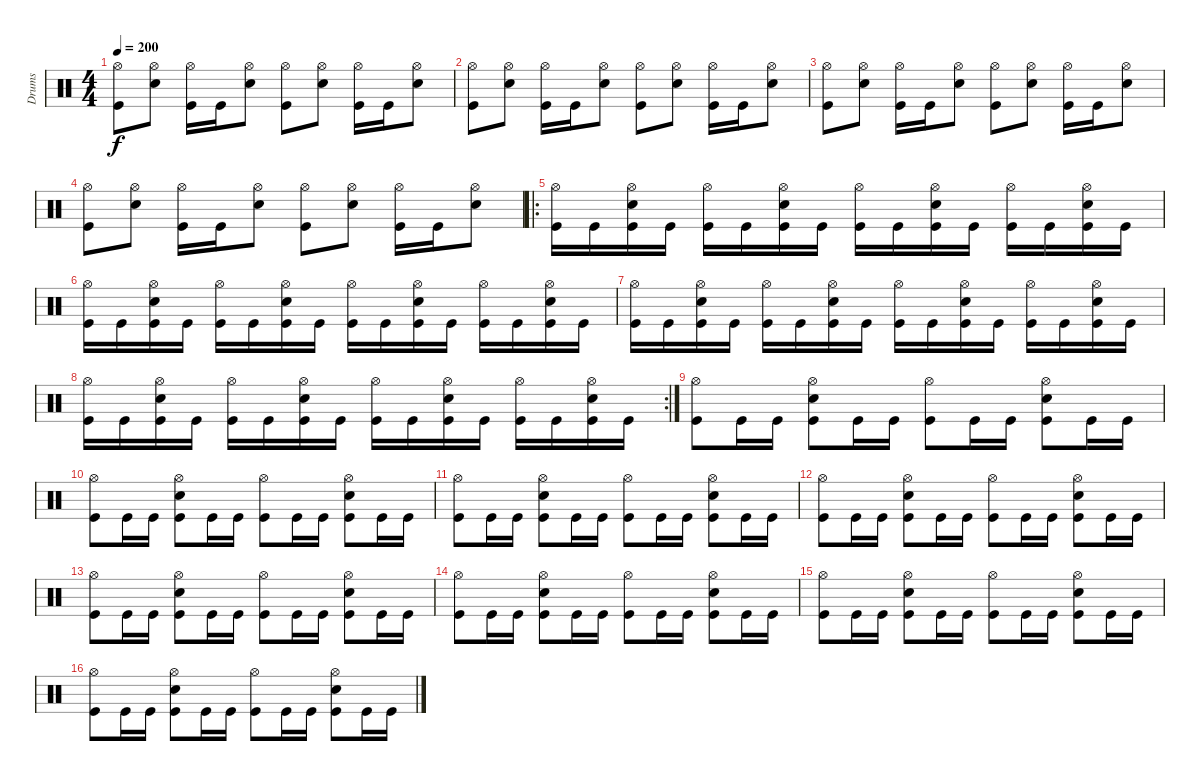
\track ("Drums" "Drums") {instrument percussion}
\staff {score}
\articulation defaults
\ts (4 4)
\tempo 200
\clef neutral
\ks c
("Hi-Hat (open)" "Kick (hit)").8{dy f} ("Hi-Hat (open)" "Snare (hit) 2").8 ("Hi-Hat (open)" "Kick (hit)").16 "Kick (hit)".16 ("Hi-Hat (open)" "Snare (hit) 2").8 ("Hi-Hat (open)" "Kick (hit)").8 ("Hi-Hat (open)" "Snare (hit) 2").8 ("Hi-Hat (open)" "Kick (hit)").16 "Kick (hit)".16 ("Hi-Hat (open)" "Snare (hit) 2").8 |
("Hi-Hat (open)" "Kick (hit)").8 ("Hi-Hat (open)" "Snare (hit) 2").8 ("Hi-Hat (open)" "Kick (hit)").16 "Kick (hit)".16 ("Hi-Hat (open)" "Snare (hit) 2").8 ("Hi-Hat (open)" "Kick (hit)").8 ("Hi-Hat (open)" "Snare (hit) 2").8 ("Hi-Hat (open)" "Kick (hit)").16 "Kick (hit)".16 ("Hi-Hat (open)" "Snare (hit) 2").8 |
("Hi-Hat (open)" "Kick (hit)").8 ("Hi-Hat (open)" "Snare (hit) 2").8 ("Hi-Hat (open)" "Kick (hit)").16 "Kick (hit)".16 ("Hi-Hat (open)" "Snare (hit) 2").8 ("Hi-Hat (open)" "Kick (hit)").8 ("Hi-Hat (open)" "Snare (hit) 2").8 ("Hi-Hat (open)" "Kick (hit)").16 "Kick (hit)".16 ("Hi-Hat (open)" "Snare (hit) 2").8 |
("Hi-Hat (open)" "Kick (hit)").8 ("Hi-Hat (open)" "Snare (hit) 2").8 ("Hi-Hat (open)" "Kick (hit)").16 "Kick (hit)".16 ("Hi-Hat (open)" "Snare (hit) 2").8 ("Hi-Hat (open)" "Kick (hit)").8 ("Hi-Hat (open)" "Snare (hit) 2").8 ("Hi-Hat (open)" "Kick (hit)").16 "Kick (hit)".16 ("Hi-Hat (open)" "Snare (hit) 2").8 |
\ro
("Hi-Hat (open)" "Kick (hit)").16 "Kick (hit)".16 ("Hi-Hat (open)" "Snare (hit) 2" "Kick (hit)").16 "Kick (hit)".16 ("Hi-Hat (open)" "Kick (hit)").16 "Kick (hit)".16 ("Hi-Hat (open)" "Snare (hit) 2" "Kick (hit)").16 "Kick (hit)".16 ("Hi-Hat (open)" "Kick (hit)").16 "Kick (hit)".16 ("Hi-Hat (open)" "Snare (hit) 2" "Kick (hit)").16 "Kick (hit)".16 ("Hi-Hat (open)" "Kick (hit)").16 "Kick (hit)".16 ("Hi-Hat (open)" "Snare (hit) 2" "Kick (hit)").16 "Kick (hit)".16 |
("Hi-Hat (open)" "Kick (hit)").16 "Kick (hit)".16 ("Hi-Hat (open)" "Snare (hit) 2" "Kick (hit)").16 "Kick (hit)".16 ("Hi-Hat (open)" "Kick (hit)").16 "Kick (hit)".16 ("Hi-Hat (open)" "Snare (hit) 2" "Kick (hit)").16 "Kick (hit)".16 ("Hi-Hat (open)" "Kick (hit)").16 "Kick (hit)".16 ("Hi-Hat (open)" "Snare (hit) 2" "Kick (hit)").16 "Kick (hit)".16 ("Hi-Hat (open)" "Kick (hit)").16 "Kick (hit)".16 ("Hi-Hat (open)" "Snare (hit) 2" "Kick (hit)").16 "Kick (hit)".16 |
("Hi-Hat (open)" "Kick (hit)").16 "Kick (hit)".16 ("Hi-Hat (open)" "Snare (hit) 2" "Kick (hit)").16 "Kick (hit)".16 ("Hi-Hat (open)" "Kick (hit)").16 "Kick (hit)".16 ("Hi-Hat (open)" "Snare (hit) 2" "Kick (hit)").16 "Kick (hit)".16 ("Hi-Hat (open)" "Kick (hit)").16 "Kick (hit)".16 ("Hi-Hat (open)" "Snare (hit) 2" "Kick (hit)").16 "Kick (hit)".16 ("Hi-Hat (open)" "Kick (hit)").16 "Kick (hit)".16 ("Hi-Hat (open)" "Snare (hit) 2" "Kick (hit)").16 "Kick (hit)".16 |
\rc 2
("Hi-Hat (open)" "Kick (hit)").16 "Kick (hit)".16 ("Hi-Hat (open)" "Snare (hit) 2" "Kick (hit)").16 "Kick (hit)".16 ("Hi-Hat (open)" "Kick (hit)").16 "Kick (hit)".16 ("Hi-Hat (open)" "Snare (hit) 2" "Kick (hit)").16 "Kick (hit)".16 ("Hi-Hat (open)" "Kick (hit)").16 "Kick (hit)".16 ("Hi-Hat (open)" "Snare (hit) 2" "Kick (hit)").16 "Kick (hit)".16 ("Hi-Hat (open)" "Kick (hit)").16 "Kick (hit)".16 ("Hi-Hat (open)" "Snare (hit) 2" "Kick (hit)").16 "Kick (hit)".16 |
("Hi-Hat (open)" "Kick (hit)").8 "Kick (hit)".16 "Kick (hit)".16 ("Hi-Hat (open)" "Snare (hit) 2" "Kick (hit)").8 "Kick (hit)".16 "Kick (hit)".16 ("Hi-Hat (open)" "Kick (hit)").8 "Kick (hit)".16 "Kick (hit)".16 ("Hi-Hat (open)" "Snare (hit) 2" "Kick (hit)").8 "Kick (hit)".16 "Kick (hit)".16 |
("Hi-Hat (open)" "Kick (hit)").8 "Kick (hit)".16 "Kick (hit)".16 ("Hi-Hat (open)" "Snare (hit) 2" "Kick (hit)").8 "Kick (hit)".16 "Kick (hit)".16 ("Hi-Hat (open)" "Kick (hit)").8 "Kick (hit)".16 "Kick (hit)".16 ("Hi-Hat (open)" "Snare (hit) 2" "Kick (hit)").8 "Kick (hit)".16 "Kick (hit)".16 |
("Hi-Hat (open)" "Kick (hit)").8 "Kick (hit)".16 "Kick (hit)".16 ("Hi-Hat (open)" "Snare (hit) 2" "Kick (hit)").8 "Kick (hit)".16 "Kick (hit)".16 ("Hi-Hat (open)" "Kick (hit)").8 "Kick (hit)".16 "Kick (hit)".16 ("Hi-Hat (open)" "Snare (hit) 2" "Kick (hit)").8 "Kick (hit)".16 "Kick (hit)".16 |
("Hi-Hat (open)" "Kick (hit)").8 "Kick (hit)".16 "Kick (hit)".16 ("Hi-Hat (open)" "Snare (hit) 2" "Kick (hit)").8 "Kick (hit)".16 "Kick (hit)".16 ("Hi-Hat (open)" "Kick (hit)").8 "Kick (hit)".16 "Kick (hit)".16 ("Hi-Hat (open)" "Snare (hit) 2" "Kick (hit)").8 "Kick (hit)".16 "Kick (hit)".16 |
("Hi-Hat (open)" "Kick (hit)").8 "Kick (hit)".16 "Kick (hit)".16 ("Hi-Hat (open)" "Snare (hit) 2" "Kick (hit)").8 "Kick (hit)".16 "Kick (hit)".16 ("Hi-Hat (open)" "Kick (hit)").8 "Kick (hit)".16 "Kick (hit)".16 ("Hi-Hat (open)" "Snare (hit) 2" "Kick (hit)").8 "Kick (hit)".16 "Kick (hit)".16 |
("Hi-Hat (open)" "Kick (hit)").8 "Kick (hit)".16 "Kick (hit)".16 ("Hi-Hat (open)" "Snare (hit) 2" "Kick (hit)").8 "Kick (hit)".16 "Kick (hit)".16 ("Hi-Hat (open)" "Kick (hit)").8 "Kick (hit)".16 "Kick (hit)".16 ("Hi-Hat (open)" "Snare (hit) 2" "Kick (hit)").8 "Kick (hit)".16 "Kick (hit)".16 |
("Hi-Hat (open)" "Kick (hit)").8 "Kick (hit)".16 "Kick (hit)".16 ("Hi-Hat (open)" "Snare (hit) 2" "Kick (hit)").8 "Kick (hit)".16 "Kick (hit)".16 ("Hi-Hat (open)" "Kick (hit)").8 "Kick (hit)".16 "Kick (hit)".16 ("Hi-Hat (open)" "Snare (hit) 2" "Kick (hit)").8 "Kick (hit)".16 "Kick (hit)".16 |
("Hi-Hat (open)" "Kick (hit)").8 "Kick (hit)".16 "Kick (hit)".16 ("Hi-Hat (open)" "Snare (hit) 2" "Kick (hit)").8 "Kick (hit)".16 "Kick (hit)".16 ("Hi-Hat (open)" "Kick (hit)").8 "Kick (hit)".16 "Kick (hit)".16 ("Hi-Hat (open)" "Snare (hit) 2" "Kick (hit)").8 "Kick (hit)".16 "Kick (hit)".16
